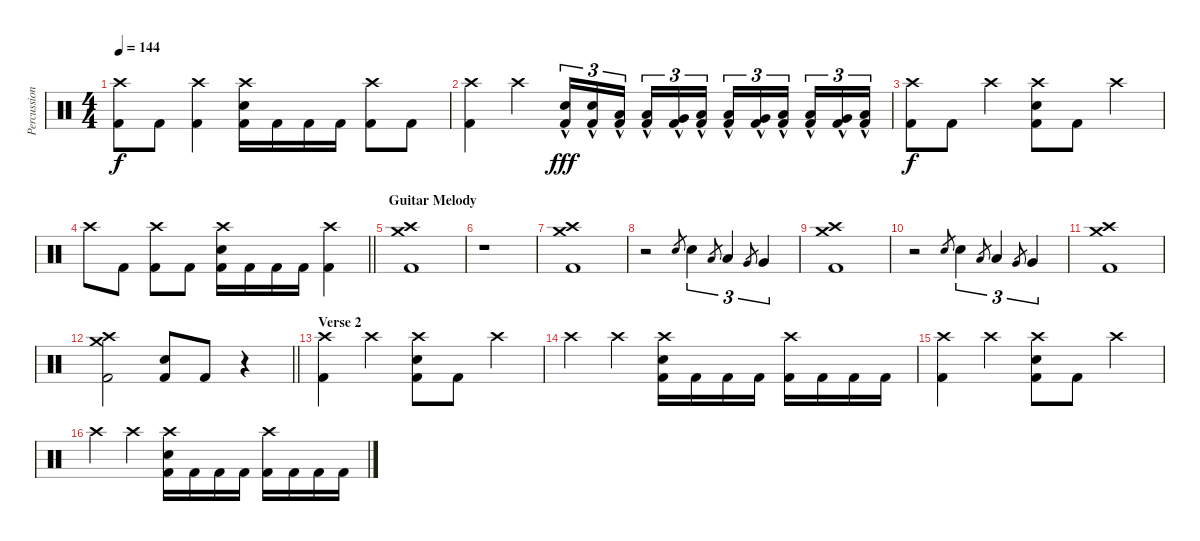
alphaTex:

\track ("Percussion" "Percussion") {instrument percussion}
\staff {score}
\articulation defaults
\ts (4 4)
\tempo 144
\clef neutral
\ks c
("Crash high (hit)" "Kick (hit) 2").8{dy f} "Kick (hit) 2".8 ("Crash high (hit)" "Kick (hit) 2").4 ("Crash high (hit)" "Snare (hit) 2" "Kick (hit) 2").16 "Kick (hit) 2".16 "Kick (hit) 2".16 "Kick (hit) 2".16 ("Crash high (hit)" "Kick (hit) 2").8 "Kick (hit) 2".8 |
("Crash high (hit)" "Kick (hit) 2").4 "Crash high (hit)".4 ("Snare (hit) 2"{hac} "Kick (hit) 2").16{tu (3 2) dy fff} ("Snare (hit) 2"{hac} "Kick (hit) 2").16{tu (3 2)} ("Low Floor Tom (hit)"{hac} "Kick (hit) 2").16{tu (3 2) beam splitsecondary} ("Low Tom (hit)"{hac} "Kick (hit) 2").16{tu (3 2)} ("Very Low Tom (hit)"{hac} "Kick (hit) 2").16{tu (3 2)} ("Low Floor Tom (hit)"{hac} "Kick (hit) 2").16{tu (3 2)} ("Low Tom (hit)"{hac} "Kick (hit) 2").16{tu (3 2)} ("Very Low Tom (hit)"{hac} "Kick (hit) 2").16{tu (3 2)} ("Low Floor Tom (hit)"{hac} "Kick (hit) 2").16{tu (3 2) beam splitsecondary} ("Low Tom (hit)"{hac} "Kick (hit) 2").16{tu (3 2)} ("Very Low Tom (hit)"{hac} "Kick (hit) 2").16{tu (3 2)} ("Low Floor Tom (hit)"{hac} "Kick (hit) 2").16{tu (3 2)} |
("Crash high (hit)" "Kick (hit) 2").8{dy f} "Kick (hit) 2".8 "Crash high (hit)".4 ("Crash high (hit)" "Snare (hit) 2" "Kick (hit) 2").8 "Kick (hit) 2".8 "Crash high (hit)".4 |
\barLineRight lightlight "Crash high (hit)".8 "Kick (hit) 2".8
("Crash high (hit)" "Kick (hit) 2").8 "Kick (hit) 2".8 ("Crash high (hit)" "Snare (hit) 2" "Kick (hit) 2").16 "Kick (hit) 2".16 "Kick (hit) 2".16 "Kick (hit) 2".16 ("Crash high (hit)" "Kick (hit) 2").4 |
\section ("" "Guitar Melody")
("Crash medium (hit)" "Crash high (hit)" "Kick (hit) 2").1 |
r.1 |
("Crash high (hit)" "Crash medium (hit)" "Kick (hit) 2").1 |
r.2 "Snare (hit) 2".8{gr} "Snare (hit) 2".4{tu (3 2)} "Low Tom (hit)".8{gr} "Low Tom (hit)".4{tu (3 2)} "Very Low Tom (hit)".8{gr} "Very Low Tom (hit)".4{tu (3 2)} |
("Crash high (hit)" "Crash medium (hit)" "Kick (hit) 2").1 |
r.2 "Snare (hit) 2".8{gr} "Snare (hit) 2".4{tu (3 2)} "Low Tom (hit)".8{gr} "Low Tom (hit)".4{tu (3 2)} "Very Low Tom (hit)".8{gr} "Very Low Tom (hit)".4{tu (3 2)} |
("Crash medium (hit)" "Crash high (hit)" "Kick (hit) 2").1 |
\barLineRight lightlight
("Crash high (hit)" "Crash medium (hit)" "Kick (hit) 2").2 ("Snare (hit) 2" "Kick (hit) 2").8 "Kick (hit) 2".8 r.4 |
\section ("" "Verse 2")
("Crash high (hit)" "Kick (hit) 2").4 "Crash high (hit)".4 ("Crash high (hit)" "Snare (hit) 2" "Kick (hit) 2").8 "Kick (hit) 2".8 "Crash high (hit)".4 |
"Crash high (hit)".4 "Crash high (hit)".4 ("Crash high (hit)" "Snare (hit) 2" "Kick (hit) 2").16 "Kick (hit) 2".16 "Kick (hit) 2".16 "Kick (hit) 2".16 ("Crash high (hit)" "Kick (hit) 2").16 "Kick (hit) 2".16 "Kick (hit) 2".16 "Kick (hit) 2".16 |
("Crash high (hit)" "Kick (hit) 2").4 "Crash high (hit)".4 ("Crash high (hit)" "Snare (hit) 2" "Kick (hit) 2").8 "Kick (hit) 2".8 "Crash high (hit)".4 |
"Crash high (hit)".4 "Crash high (hit)".4 ("Crash high (hit)" "Snare (hit) 2" "Kick (hit) 2").16 "Kick (hit) 2".16 "Kick (hit) 2".16 "Kick (hit) 2".16 ("Crash high (hit)" "Kick (hit) 2").16 "Kick (hit) 2".16 "Kick (hit) 2".16 "Kick (hit) 2".16
